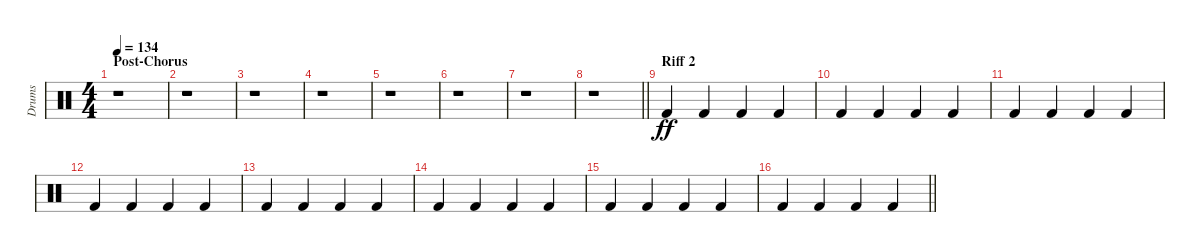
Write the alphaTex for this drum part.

\track ("Drums" "Drums") {instrument percussion}
\staff {score}
\articulation defaults
\ts (4 4)
\section ("" "Post-Chorus")
\tempo 134
\clef neutral
\ks c
r.1{dy ff} |
r.1 |
r.1 |
r.1 |
r.1 |
r.1 |
r.1 |
\barLineRight lightlight
r.1 |
\section ("" "Riff 2")
"Kick (hit) 2".4 "Kick (hit) 2".4 "Kick (hit) 2".4 "Kick (hit) 2".4 |
"Kick (hit) 2".4 "Kick (hit) 2".4 "Kick (hit) 2".4 "Kick (hit) 2".4 |
"Kick (hit) 2".4 "Kick (hit) 2".4 "Kick (hit) 2".4 "Kick (hit) 2".4 |
"Kick (hit) 2".4 "Kick (hit) 2".4 "Kick (hit) 2".4 "Kick (hit) 2".4 |
"Kick (hit) 2".4 "Kick (hit) 2".4 "Kick (hit) 2".4 "Kick (hit) 2".4 |
"Kick (hit) 2".4 "Kick (hit) 2".4 "Kick (hit) 2".4 "Kick (hit) 2".4 |
"Kick (hit) 2".4 "Kick (hit) 2".4 "Kick (hit) 2".4 "Kick (hit) 2".4 |
\barLineRight lightlight "Kick (hit) 2".4 "Kick (hit) 2".4 "Kick (hit) 2".4 "Kick (hit) 2".4
